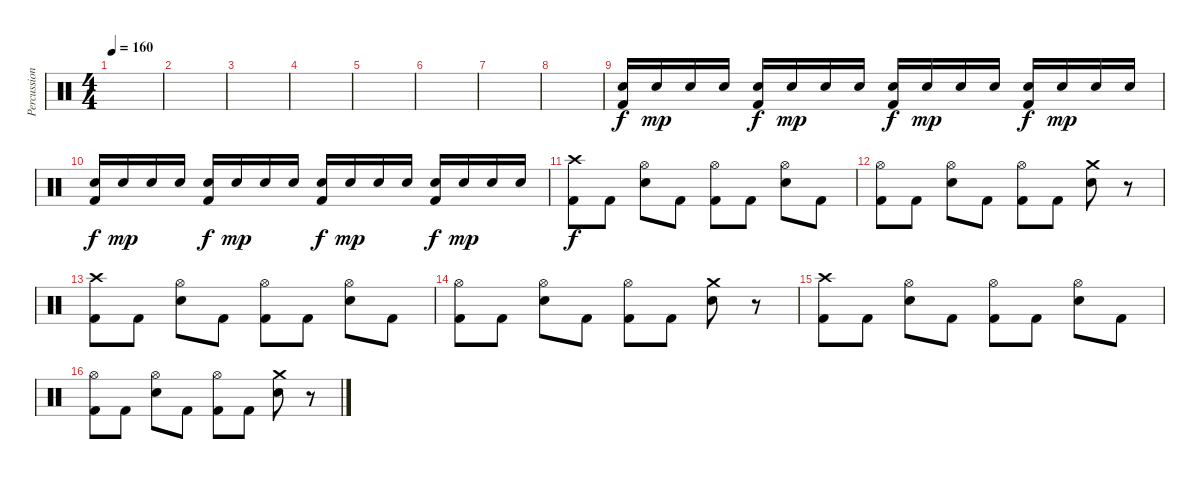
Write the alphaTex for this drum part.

\track ("Percussion" "Percussion") {instrument percussion}
\staff {score}
\articulation defaults
\ts (4 4)
\tempo 160
\clef neutral
\ks c
|
|
|
|
|
|
|
|
("Electric Snare (hit)" "Kick (hit) 2").16 "Electric Snare (hit)".16{dy mp} "Electric Snare (hit)".16 "Electric Snare (hit)".16 ("Electric Snare (hit)" "Kick (hit) 2").16{dy f} "Electric Snare (hit)".16{dy mp} "Electric Snare (hit)".16 "Electric Snare (hit)".16 ("Electric Snare (hit)" "Kick (hit) 2").16{dy f} "Electric Snare (hit)".16{dy mp} "Electric Snare (hit)".16 "Electric Snare (hit)".16 ("Electric Snare (hit)" "Kick (hit) 2").16{dy f} "Electric Snare (hit)".16{dy mp} "Electric Snare (hit)".16 "Electric Snare (hit)".16 |
("Electric Snare (hit)" "Kick (hit) 2").16{dy f} "Electric Snare (hit)".16{dy mp} "Electric Snare (hit)".16 "Electric Snare (hit)".16 ("Electric Snare (hit)" "Kick (hit) 2").16{dy f} "Electric Snare (hit)".16{dy mp} "Electric Snare (hit)".16 "Electric Snare (hit)".16 ("Electric Snare (hit)" "Kick (hit) 2").16{dy f} "Electric Snare (hit)".16{dy mp} "Electric Snare (hit)".16 "Electric Snare (hit)".16 ("Electric Snare (hit)" "Kick (hit) 2").16{dy f} "Electric Snare (hit)".16{dy mp} "Electric Snare (hit)".16 "Electric Snare (hit)".16 |
("Crash high (hit)" "Kick (hit) 2").8{dy f} "Kick (hit) 2".8 ("Hi-Hat (open)" "Electric Snare (hit)").8 "Kick (hit) 2".8 ("Hi-Hat (open)" "Kick (hit) 2").8 "Kick (hit) 2".8 ("Hi-Hat (open)" "Electric Snare (hit)").8 "Kick (hit) 2".8 |
("Hi-Hat (open)" "Kick (hit) 2").8 "Kick (hit) 2".8 ("Hi-Hat (open)" "Electric Snare (hit)").8 "Kick (hit) 2".8 ("Hi-Hat (open)" "Kick (hit) 2").8 "Kick (hit) 2".8 ("Crash medium (hit)" "Electric Snare (hit)").8 r.8 |
("Crash high (hit)" "Kick (hit) 2").8 "Kick (hit) 2".8 ("Hi-Hat (open)" "Electric Snare (hit)").8 "Kick (hit) 2".8 ("Hi-Hat (open)" "Kick (hit) 2").8 "Kick (hit) 2".8 ("Hi-Hat (open)" "Electric Snare (hit)").8 "Kick (hit) 2".8 |
("Hi-Hat (open)" "Kick (hit) 2").8 "Kick (hit) 2".8 ("Hi-Hat (open)" "Electric Snare (hit)").8 "Kick (hit) 2".8 ("Hi-Hat (open)" "Kick (hit) 2").8 "Kick (hit) 2".8 ("Crash medium (hit)" "Electric Snare (hit)").8 r.8 |
("Crash high (hit)" "Kick (hit) 2").8 "Kick (hit) 2".8 ("Hi-Hat (open)" "Electric Snare (hit)").8 "Kick (hit) 2".8 ("Hi-Hat (open)" "Kick (hit) 2").8 "Kick (hit) 2".8 ("Hi-Hat (open)" "Electric Snare (hit)").8 "Kick (hit) 2".8 |
("Hi-Hat (open)" "Kick (hit) 2").8 "Kick (hit) 2".8 ("Hi-Hat (open)" "Electric Snare (hit)").8 "Kick (hit) 2".8 ("Hi-Hat (open)" "Kick (hit) 2").8 "Kick (hit) 2".8 ("Crash medium (hit)" "Electric Snare (hit)").8 r.8
